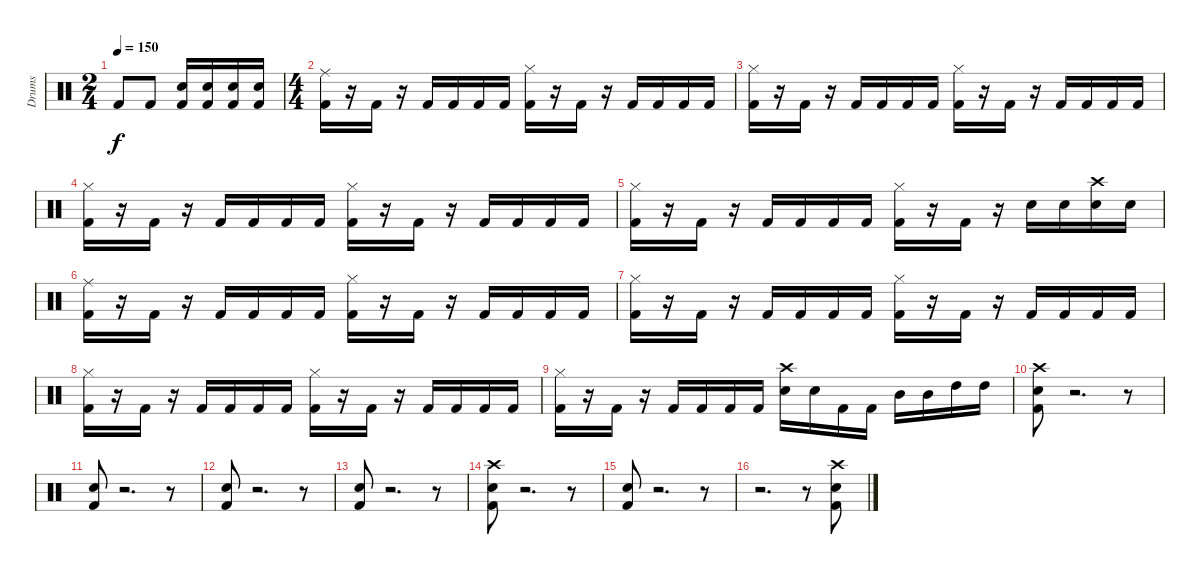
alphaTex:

\track ("Drums" "Drums") {instrument percussion}
\staff {score}
\articulation defaults
\ts (2 4)
\tempo 150
\clef neutral
\ks c "Kick (hit) 2".8{dy f} "Kick (hit) 2".8
("Electric Snare (hit)" "Kick (hit) 2").16 ("Electric Snare (hit)" "Kick (hit) 2").16 ("Electric Snare (hit)" "Kick (hit) 2").16 ("Electric Snare (hit)" "Kick (hit) 2").16 |
\ts (4 4)
("Ride (middle)" "Kick (hit) 2").16 r.16 "Kick (hit) 2".16 r.16 "Kick (hit) 2".16 "Kick (hit) 2".16 "Kick (hit) 2".16 "Kick (hit) 2".16 ("Hi-Hat (closed)" "Kick (hit) 2").16 r.16 "Kick (hit) 2".16 r.16 "Kick (hit) 2".16 "Kick (hit) 2".16 "Kick (hit) 2".16 "Kick (hit) 2".16 |
("Hi-Hat (closed)" "Kick (hit) 2").16 r.16 "Kick (hit) 2".16 r.16 "Kick (hit) 2".16 "Kick (hit) 2".16 "Kick (hit) 2".16 "Kick (hit) 2".16 ("Hi-Hat (closed)" "Kick (hit) 2").16 r.16 "Kick (hit) 2".16 r.16 "Kick (hit) 2".16 "Kick (hit) 2".16 "Kick (hit) 2".16 "Kick (hit) 2".16 |
("Hi-Hat (closed)" "Kick (hit) 2").16 r.16 "Kick (hit) 2".16 r.16 "Kick (hit) 2".16 "Kick (hit) 2".16 "Kick (hit) 2".16 "Kick (hit) 2".16 ("Hi-Hat (closed)" "Kick (hit) 2").16 r.16 "Kick (hit) 2".16 r.16 "Kick (hit) 2".16 "Kick (hit) 2".16 "Kick (hit) 2".16 "Kick (hit) 2".16 |
("Hi-Hat (closed)" "Kick (hit) 2").16 r.16 "Kick (hit) 2".16 r.16 "Kick (hit) 2".16 "Kick (hit) 2".16 "Kick (hit) 2".16 "Kick (hit) 2".16 ("Hi-Hat (closed)" "Kick (hit) 2").16 r.16 "Kick (hit) 2".16 r.16 "Electric Snare (hit)".16 "Electric Snare (hit)".16 ("Crash high (hit)" "Electric Snare (hit)").16 "Electric Snare (hit)".16 |
("Ride (middle)" "Kick (hit) 2").16 r.16 "Kick (hit) 2".16 r.16 "Kick (hit) 2".16 "Kick (hit) 2".16 "Kick (hit) 2".16 "Kick (hit) 2".16 ("Hi-Hat (closed)" "Kick (hit) 2").16 r.16 "Kick (hit) 2".16 r.16 "Kick (hit) 2".16 "Kick (hit) 2".16 "Kick (hit) 2".16 "Kick (hit) 2".16 |
("Hi-Hat (closed)" "Kick (hit) 2").16 r.16 "Kick (hit) 2".16 r.16 "Kick (hit) 2".16 "Kick (hit) 2".16 "Kick (hit) 2".16 "Kick (hit) 2".16 ("Hi-Hat (closed)" "Kick (hit) 2").16 r.16 "Kick (hit) 2".16 r.16 "Kick (hit) 2".16 "Kick (hit) 2".16 "Kick (hit) 2".16 "Kick (hit) 2".16 |
("Hi-Hat (closed)" "Kick (hit) 2").16 r.16 "Kick (hit) 2".16 r.16 "Kick (hit) 2".16 "Kick (hit) 2".16 "Kick (hit) 2".16 "Kick (hit) 2".16 ("Hi-Hat (closed)" "Kick (hit) 2").16 r.16 "Kick (hit) 2".16 r.16 "Kick (hit) 2".16 "Kick (hit) 2".16 "Kick (hit) 2".16 "Kick (hit) 2".16 |
("Hi-Hat (closed)" "Kick (hit) 2").16 r.16 "Kick (hit) 2".16 r.16 "Kick (hit) 2".16 "Kick (hit) 2".16 "Kick (hit) 2".16 "Kick (hit) 2".16 ("Crash high (hit)" "Electric Snare (hit)").16 "Electric Snare (hit)".16 "Kick (hit) 2".16 "Kick (hit) 2".16 "Mid Tom (hit)".16 "Mid Tom (hit)".16 "High Tom (hit)".16 "High Tom (hit)".16 |
("Crash high (hit)" "Electric Snare (hit)" "Kick (hit) 2").8 r.2{d} r.8 |
("Electric Snare (hit)" "Kick (hit) 2").8 r.2{d} r.8 |
("Electric Snare (hit)" "Kick (hit) 2").8 r.2{d} r.8 |
("Electric Snare (hit)" "Kick (hit) 2").8 r.2{d} r.8 |
("Crash high (hit)" "Electric Snare (hit)" "Kick (hit) 2").8 r.2{d} r.8 |
("Electric Snare (hit)" "Kick (hit) 2").8 r.2{d} r.8 |
r.2{d} r.8 ("Crash high (hit)" "Electric Snare (hit)" "Kick (hit) 2").8
